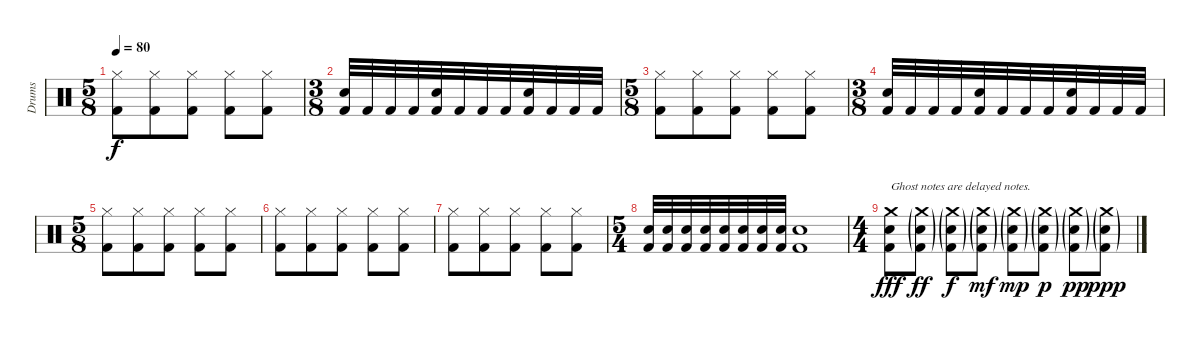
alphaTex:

\track ("Drums" "Drums") {instrument percussion}
\staff {score}
\articulation defaults
\ts (5 8)
\tempo 80
\clef neutral
\ks c
("Hi-Hat (closed)" "Kick (hit) 2").8{dy f} ("Hi-Hat (closed)" "Kick (hit) 2").8 ("Hi-Hat (closed)" "Kick (hit) 2").8 ("Hi-Hat (closed)" "Kick (hit) 2").8 ("Hi-Hat (closed)" "Kick (hit) 2").8 |
\ts (3 8)
("Snare (hit) 2" "Kick (hit) 2").32 "Kick (hit) 2".32 "Kick (hit) 2".32 "Kick (hit) 2".32 ("Snare (hit) 2" "Kick (hit) 2").32 "Kick (hit) 2".32 "Kick (hit) 2".32 "Kick (hit) 2".32 ("Snare (hit) 2" "Kick (hit) 2").32 "Kick (hit) 2".32 "Kick (hit) 2".32 "Kick (hit) 2".32 |
\ts (5 8)
("Hi-Hat (closed)" "Kick (hit) 2").8 ("Hi-Hat (closed)" "Kick (hit) 2").8 ("Hi-Hat (closed)" "Kick (hit) 2").8 ("Hi-Hat (closed)" "Kick (hit) 2").8 ("Hi-Hat (closed)" "Kick (hit) 2").8 |
\ts (3 8)
("Snare (hit) 2" "Kick (hit) 2").32 "Kick (hit) 2".32 "Kick (hit) 2".32 "Kick (hit) 2".32 ("Snare (hit) 2" "Kick (hit) 2").32 "Kick (hit) 2".32 "Kick (hit) 2".32 "Kick (hit) 2".32 ("Snare (hit) 2" "Kick (hit) 2").32 "Kick (hit) 2".32 "Kick (hit) 2".32 "Kick (hit) 2".32 |
\ts (5 8)
("Hi-Hat (closed)" "Kick (hit) 2").8 ("Hi-Hat (closed)" "Kick (hit) 2").8 ("Hi-Hat (closed)" "Kick (hit) 2").8 ("Hi-Hat (closed)" "Kick (hit) 2").8 ("Hi-Hat (closed)" "Kick (hit) 2").8 |
("Hi-Hat (closed)" "Kick (hit) 2").8 ("Hi-Hat (closed)" "Kick (hit) 2").8 ("Hi-Hat (closed)" "Kick (hit) 2").8 ("Hi-Hat (closed)" "Kick (hit) 2").8 ("Hi-Hat (closed)" "Kick (hit) 2").8 |
("Hi-Hat (closed)" "Kick (hit) 2").8 ("Hi-Hat (closed)" "Kick (hit) 2").8 ("Hi-Hat (closed)" "Kick (hit) 2").8 ("Hi-Hat (closed)" "Kick (hit) 2").8 ("Hi-Hat (closed)" "Kick (hit) 2").8 |
\ts (5 4)
("Snare (hit) 2" "Kick (hit) 2").32 ("Snare (hit) 2" "Kick (hit) 2").32 ("Snare (hit) 2" "Kick (hit) 2").32 ("Snare (hit) 2" "Kick (hit) 2").32 ("Snare (hit) 2" "Kick (hit) 2").32 ("Snare (hit) 2" "Kick (hit) 2").32 ("Snare (hit) 2" "Kick (hit) 2").32 ("Snare (hit) 2" "Kick (hit) 2").32 ("Snare (hit) 2" "Kick (hit) 2").1 |
\ts (4 4)
("Crash medium (hit)" "Snare (hit) 2" "Kick (hit) 2").8{txt "Ghost notes are delayed notes." dy fff} ("Crash medium (hit)"{g} "Snare (hit) 2"{g} "Kick (hit) 2"{g}).8{dy ff} ("Crash medium (hit)"{g} "Snare (hit) 2"{g} "Kick (hit) 2"{g}).8{dy f} ("Crash medium (hit)"{g} "Snare (hit) 2"{g} "Kick (hit) 2"{g}).8{dy mf} ("Crash medium (hit)"{g} "Snare (hit) 2"{g} "Kick (hit) 2"{g}).8{dy mp} ("Crash medium (hit)"{g} "Snare (hit) 2"{g} "Kick (hit) 2"{g}).8{dy p} ("Crash medium (hit)"{g} "Snare (hit) 2"{g} "Kick (hit) 2"{g}).8{dy pp} ("Crash medium (hit)"{g} "Snare (hit) 2"{g} "Kick (hit) 2"{g}).8{dy ppp}
